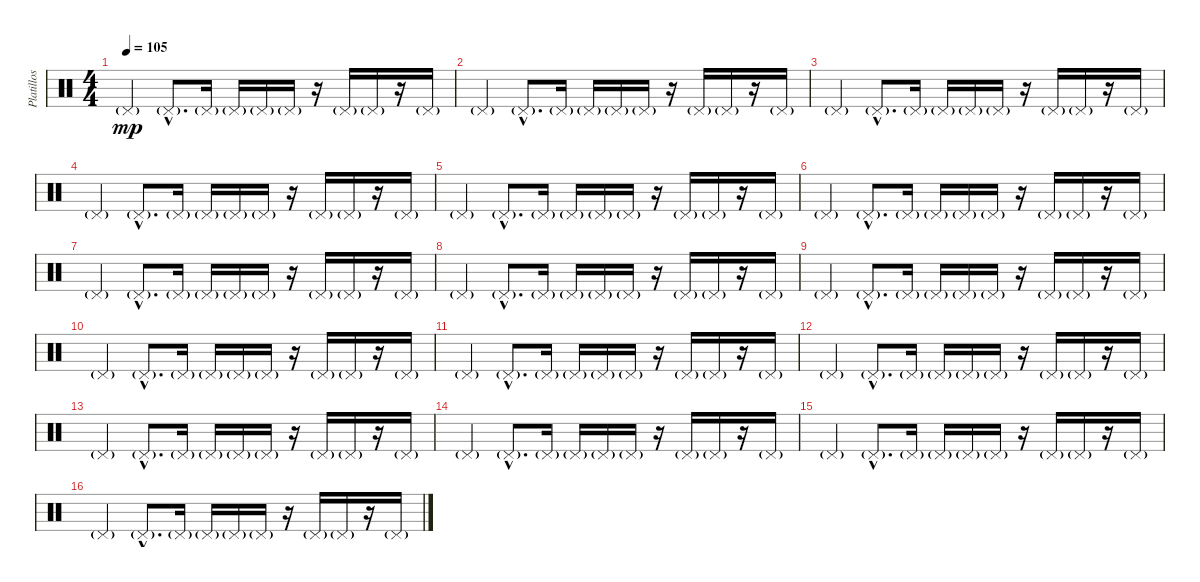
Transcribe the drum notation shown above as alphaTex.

\track ("Platillos" "Platillos") {instrument percussion}
\staff {score}
\articulation defaults
\ts (4 4)
\tempo 105
\clef neutral
\ks c "Pedal Hi-Hat (hit)"{g}.4{dy mp} "Pedal Hi-Hat (hit)"{g hac}.8{d} "Pedal Hi-Hat (hit)"{g}.16 "Pedal Hi-Hat (hit)"{g}.16 "Pedal Hi-Hat (hit)"{g}.16 "Pedal Hi-Hat (hit)"{g}.16
r.16 "Pedal Hi-Hat (hit)"{g}.16 "Pedal Hi-Hat (hit)"{g}.16 r.16 "Pedal Hi-Hat (hit)"{g}.16 |
"Pedal Hi-Hat (hit)"{g}.4 "Pedal Hi-Hat (hit)"{g hac}.8{d} "Pedal Hi-Hat (hit)"{g}.16 "Pedal Hi-Hat (hit)"{g}.16 "Pedal Hi-Hat (hit)"{g}.16 "Pedal Hi-Hat (hit)"{g}.16 r.16 "Pedal Hi-Hat (hit)"{g}.16 "Pedal Hi-Hat (hit)"{g}.16 r.16 "Pedal Hi-Hat (hit)"{g}.16 |
"Pedal Hi-Hat (hit)"{g}.4 "Pedal Hi-Hat (hit)"{g hac}.8{d} "Pedal Hi-Hat (hit)"{g}.16 "Pedal Hi-Hat (hit)"{g}.16 "Pedal Hi-Hat (hit)"{g}.16 "Pedal Hi-Hat (hit)"{g}.16 r.16 "Pedal Hi-Hat (hit)"{g}.16 "Pedal Hi-Hat (hit)"{g}.16 r.16 "Pedal Hi-Hat (hit)"{g}.16 |
"Pedal Hi-Hat (hit)"{g}.4 "Pedal Hi-Hat (hit)"{g hac}.8{d} "Pedal Hi-Hat (hit)"{g}.16 "Pedal Hi-Hat (hit)"{g}.16 "Pedal Hi-Hat (hit)"{g}.16 "Pedal Hi-Hat (hit)"{g}.16 r.16 "Pedal Hi-Hat (hit)"{g}.16 "Pedal Hi-Hat (hit)"{g}.16 r.16 "Pedal Hi-Hat (hit)"{g}.16 |
"Pedal Hi-Hat (hit)"{g}.4 "Pedal Hi-Hat (hit)"{g hac}.8{d} "Pedal Hi-Hat (hit)"{g}.16 "Pedal Hi-Hat (hit)"{g}.16 "Pedal Hi-Hat (hit)"{g}.16 "Pedal Hi-Hat (hit)"{g}.16 r.16 "Pedal Hi-Hat (hit)"{g}.16 "Pedal Hi-Hat (hit)"{g}.16 r.16 "Pedal Hi-Hat (hit)"{g}.16 |
"Pedal Hi-Hat (hit)"{g}.4 "Pedal Hi-Hat (hit)"{g hac}.8{d} "Pedal Hi-Hat (hit)"{g}.16 "Pedal Hi-Hat (hit)"{g}.16 "Pedal Hi-Hat (hit)"{g}.16 "Pedal Hi-Hat (hit)"{g}.16 r.16 "Pedal Hi-Hat (hit)"{g}.16 "Pedal Hi-Hat (hit)"{g}.16 r.16 "Pedal Hi-Hat (hit)"{g}.16 |
"Pedal Hi-Hat (hit)"{g}.4 "Pedal Hi-Hat (hit)"{g hac}.8{d} "Pedal Hi-Hat (hit)"{g}.16 "Pedal Hi-Hat (hit)"{g}.16 "Pedal Hi-Hat (hit)"{g}.16 "Pedal Hi-Hat (hit)"{g}.16 r.16 "Pedal Hi-Hat (hit)"{g}.16 "Pedal Hi-Hat (hit)"{g}.16 r.16 "Pedal Hi-Hat (hit)"{g}.16 |
"Pedal Hi-Hat (hit)"{g}.4 "Pedal Hi-Hat (hit)"{g hac}.8{d} "Pedal Hi-Hat (hit)"{g}.16 "Pedal Hi-Hat (hit)"{g}.16 "Pedal Hi-Hat (hit)"{g}.16 "Pedal Hi-Hat (hit)"{g}.16 r.16 "Pedal Hi-Hat (hit)"{g}.16 "Pedal Hi-Hat (hit)"{g}.16 r.16 "Pedal Hi-Hat (hit)"{g}.16 |
"Pedal Hi-Hat (hit)"{g}.4 "Pedal Hi-Hat (hit)"{g hac}.8{d} "Pedal Hi-Hat (hit)"{g}.16 "Pedal Hi-Hat (hit)"{g}.16 "Pedal Hi-Hat (hit)"{g}.16 "Pedal Hi-Hat (hit)"{g}.16 r.16 "Pedal Hi-Hat (hit)"{g}.16 "Pedal Hi-Hat (hit)"{g}.16 r.16 "Pedal Hi-Hat (hit)"{g}.16 |
"Pedal Hi-Hat (hit)"{g}.4 "Pedal Hi-Hat (hit)"{g hac}.8{d} "Pedal Hi-Hat (hit)"{g}.16 "Pedal Hi-Hat (hit)"{g}.16 "Pedal Hi-Hat (hit)"{g}.16 "Pedal Hi-Hat (hit)"{g}.16 r.16 "Pedal Hi-Hat (hit)"{g}.16 "Pedal Hi-Hat (hit)"{g}.16 r.16 "Pedal Hi-Hat (hit)"{g}.16 |
"Pedal Hi-Hat (hit)"{g}.4 "Pedal Hi-Hat (hit)"{g hac}.8{d} "Pedal Hi-Hat (hit)"{g}.16 "Pedal Hi-Hat (hit)"{g}.16 "Pedal Hi-Hat (hit)"{g}.16 "Pedal Hi-Hat (hit)"{g}.16 r.16 "Pedal Hi-Hat (hit)"{g}.16 "Pedal Hi-Hat (hit)"{g}.16 r.16 "Pedal Hi-Hat (hit)"{g}.16 |
"Pedal Hi-Hat (hit)"{g}.4 "Pedal Hi-Hat (hit)"{g hac}.8{d} "Pedal Hi-Hat (hit)"{g}.16 "Pedal Hi-Hat (hit)"{g}.16 "Pedal Hi-Hat (hit)"{g}.16 "Pedal Hi-Hat (hit)"{g}.16 r.16 "Pedal Hi-Hat (hit)"{g}.16 "Pedal Hi-Hat (hit)"{g}.16 r.16 "Pedal Hi-Hat (hit)"{g}.16 |
"Pedal Hi-Hat (hit)"{g}.4 "Pedal Hi-Hat (hit)"{g hac}.8{d} "Pedal Hi-Hat (hit)"{g}.16 "Pedal Hi-Hat (hit)"{g}.16 "Pedal Hi-Hat (hit)"{g}.16 "Pedal Hi-Hat (hit)"{g}.16 r.16 "Pedal Hi-Hat (hit)"{g}.16 "Pedal Hi-Hat (hit)"{g}.16 r.16 "Pedal Hi-Hat (hit)"{g}.16 |
"Pedal Hi-Hat (hit)"{g}.4 "Pedal Hi-Hat (hit)"{g hac}.8{d} "Pedal Hi-Hat (hit)"{g}.16 "Pedal Hi-Hat (hit)"{g}.16 "Pedal Hi-Hat (hit)"{g}.16 "Pedal Hi-Hat (hit)"{g}.16 r.16 "Pedal Hi-Hat (hit)"{g}.16 "Pedal Hi-Hat (hit)"{g}.16 r.16 "Pedal Hi-Hat (hit)"{g}.16 |
"Pedal Hi-Hat (hit)"{g}.4 "Pedal Hi-Hat (hit)"{g hac}.8{d} "Pedal Hi-Hat (hit)"{g}.16 "Pedal Hi-Hat (hit)"{g}.16 "Pedal Hi-Hat (hit)"{g}.16 "Pedal Hi-Hat (hit)"{g}.16 r.16 "Pedal Hi-Hat (hit)"{g}.16 "Pedal Hi-Hat (hit)"{g}.16 r.16 "Pedal Hi-Hat (hit)"{g}.16 |
"Pedal Hi-Hat (hit)"{g}.4 "Pedal Hi-Hat (hit)"{g hac}.8{d} "Pedal Hi-Hat (hit)"{g}.16 "Pedal Hi-Hat (hit)"{g}.16 "Pedal Hi-Hat (hit)"{g}.16 "Pedal Hi-Hat (hit)"{g}.16 r.16 "Pedal Hi-Hat (hit)"{g}.16 "Pedal Hi-Hat (hit)"{g}.16 r.16 "Pedal Hi-Hat (hit)"{g}.16
